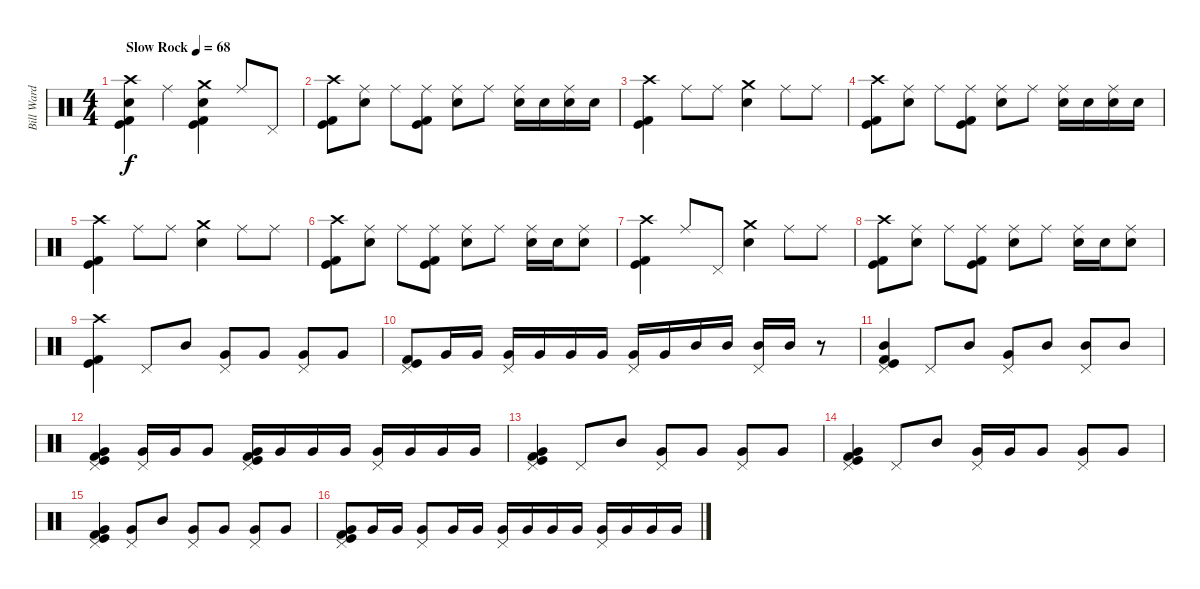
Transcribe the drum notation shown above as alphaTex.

\track ("Bill Ward" "Bill Ward") {instrument percussion}
\staff {score}
\articulation defaults
\ts (4 4)
\tempo (68 "Slow Rock")
\clef neutral
\ks c
("Crash high (hit)" "Snare (hit) 2" "Kick (hit) 2" "Kick (hit)").4{dy f} "Ride (middle)".4 ("Crash medium (hit)" "Snare (hit) 2" "Kick (hit) 2" "Kick (hit)").4 "Ride (middle)".8 "Pedal Hi-Hat (hit)".8 |
("Crash high (hit)" "Kick (hit) 2" "Kick (hit)").8 ("Ride (middle)" "Snare (hit) 2").8 "Ride (middle)".8 ("Ride (middle)" "Kick (hit) 2" "Kick (hit)").8 ("Ride (middle)" "Snare (hit) 2").8 "Ride (middle)".8 ("Ride (middle)" "Snare (hit) 2").16 "Snare (hit) 2".16 ("Ride (middle)" "Snare (hit) 2").16 "Snare (hit) 2".16 |
("Crash high (hit)" "Kick (hit) 2" "Kick (hit)").4 "Ride (middle)".8 "Ride (middle)".8 ("Crash medium (hit)" "Snare (hit) 2").4 "Ride (middle)".8 "Ride (middle)".8 |
("Crash high (hit)" "Kick (hit) 2" "Kick (hit)").8 ("Ride (middle)" "Snare (hit) 2").8 "Ride (middle)".8 ("Ride (middle)" "Kick (hit) 2" "Kick (hit)").8 ("Ride (middle)" "Snare (hit) 2").8 "Ride (middle)".8 ("Ride (middle)" "Snare (hit) 2").16 "Snare (hit) 2".16 ("Ride (middle)" "Snare (hit) 2").16 "Snare (hit) 2".16 |
("Crash high (hit)" "Kick (hit) 2" "Kick (hit)").4 "Ride (middle)".8 "Ride (middle)".8 ("Crash medium (hit)" "Snare (hit) 2").4 "Ride (middle)".8 "Ride (middle)".8 |
("Crash high (hit)" "Kick (hit) 2" "Kick (hit)").8 ("Ride (middle)" "Snare (hit) 2").8 "Ride (middle)".8 ("Ride (middle)" "Kick (hit) 2" "Kick (hit)").8 ("Ride (middle)" "Snare (hit) 2").8 "Ride (middle)".8 ("Ride (middle)" "Snare (hit) 2").16 "Snare (hit) 2".16 ("Ride (middle)" "Snare (hit) 2").8 |
("Crash high (hit)" "Kick (hit) 2" "Kick (hit)").4 "Ride (middle)".8 "Pedal Hi-Hat (hit)".8 ("Crash medium (hit)" "Snare (hit) 2").4 "Ride (middle)".8 "Ride (middle)".8 |
("Crash high (hit)" "Kick (hit) 2" "Kick (hit)").8 ("Ride (middle)" "Snare (hit) 2").8 "Ride (middle)".8 ("Ride (middle)" "Kick (hit) 2" "Kick (hit)").8 ("Ride (middle)" "Snare (hit) 2").8 "Ride (middle)".8 ("Ride (middle)" "Snare (hit) 2").16 "Snare (hit) 2".16 ("Ride (middle)" "Snare (hit) 2").8 |
("Crash high (hit)" "Kick (hit) 2" "Kick (hit)").4 "Pedal Hi-Hat (hit)".8 "Mid Tom (hit)".8 ("Pedal Hi-Hat (hit)" "Very Low Tom (hit)").8 "Very Low Tom (hit)".8 ("Pedal Hi-Hat (hit)" "Very Low Tom (hit)").8 "Very Low Tom (hit)".8 |
("Pedal Hi-Hat (hit)" "Kick (hit) 2" "Kick (hit)").8 "Very Low Tom (hit)".16 "Very Low Tom (hit)".16 ("Very Low Tom (hit)" "Pedal Hi-Hat (hit)").16 "Very Low Tom (hit)".16 "Very Low Tom (hit)".16 "Very Low Tom (hit)".16 ("Very Low Tom (hit)" "Pedal Hi-Hat (hit)").16 "Very Low Tom (hit)".16 "Mid Tom (hit)".16 "Mid Tom (hit)".16 ("Mid Tom (hit)" "Pedal Hi-Hat (hit)").16 "Mid Tom (hit)".16 r.8 |
("Pedal Hi-Hat (hit)" "Mid Tom (hit)" "Kick (hit) 2" "Kick (hit)").4 "Pedal Hi-Hat (hit)".8 "Mid Tom (hit)".8 ("Pedal Hi-Hat (hit)" "Very Low Tom (hit)").8 "Mid Tom (hit)".8 ("Pedal Hi-Hat (hit)" "Mid Tom (hit)").8 "Mid Tom (hit)".8 |
("Pedal Hi-Hat (hit)" "Very Low Tom (hit)" "Kick (hit) 2" "Kick (hit)").4 ("Pedal Hi-Hat (hit)" "Very Low Tom (hit)").16 "Very Low Tom (hit)".16 "Very Low Tom (hit)".8 ("Pedal Hi-Hat (hit)" "Very Low Tom (hit)" "Kick (hit) 2" "Kick (hit)").16 "Very Low Tom (hit)".16 "Very Low Tom (hit)".16 "Very Low Tom (hit)".16 ("Pedal Hi-Hat (hit)" "Very Low Tom (hit)").16 "Very Low Tom (hit)".16 "Very Low Tom (hit)".16 "Very Low Tom (hit)".16 |
("Pedal Hi-Hat (hit)" "Kick (hit) 2" "Kick (hit)" "Very Low Tom (hit)").4 "Pedal Hi-Hat (hit)".8 "Mid Tom (hit)".8 ("Pedal Hi-Hat (hit)" "Very Low Tom (hit)").8 "Very Low Tom (hit)".8 ("Pedal Hi-Hat (hit)" "Very Low Tom (hit)").8 "Very Low Tom (hit)".8 |
("Pedal Hi-Hat (hit)" "Kick (hit) 2" "Kick (hit)" "Very Low Tom (hit)").4 "Pedal Hi-Hat (hit)".8 "Mid Tom (hit)".8 ("Pedal Hi-Hat (hit)" "Very Low Tom (hit)").16 "Very Low Tom (hit)".16 "Very Low Tom (hit)".8 ("Pedal Hi-Hat (hit)" "Very Low Tom (hit)").8 "Very Low Tom (hit)".8 |
("Pedal Hi-Hat (hit)" "Kick (hit) 2" "Kick (hit)" "Very Low Tom (hit)").4 ("Pedal Hi-Hat (hit)" "Very Low Tom (hit)").8 "Mid Tom (hit)".8 ("Pedal Hi-Hat (hit)" "Very Low Tom (hit)").8 "Very Low Tom (hit)".8 ("Pedal Hi-Hat (hit)" "Very Low Tom (hit)").8 "Very Low Tom (hit)".8 |
("Pedal Hi-Hat (hit)" "Very Low Tom (hit)" "Kick (hit) 2" "Kick (hit)").8 "Very Low Tom (hit)".16 "Very Low Tom (hit)".16 ("Pedal Hi-Hat (hit)" "Very Low Tom (hit)").8 "Very Low Tom (hit)".16 "Very Low Tom (hit)".16 ("Pedal Hi-Hat (hit)" "Very Low Tom (hit)").16 "Very Low Tom (hit)".16 "Very Low Tom (hit)".16 "Very Low Tom (hit)".16 ("Pedal Hi-Hat (hit)" "Very Low Tom (hit)").16 "Very Low Tom (hit)".16 "Very Low Tom (hit)".16 "Very Low Tom (hit)".16
